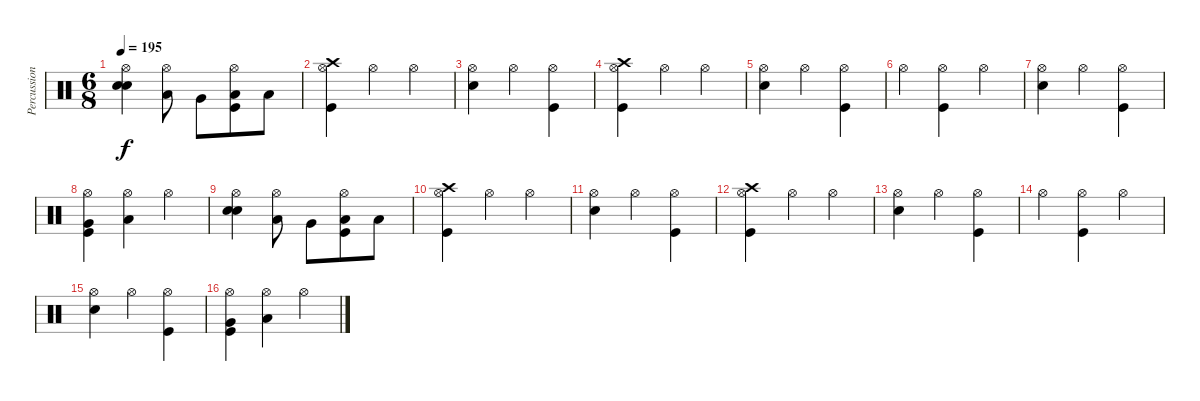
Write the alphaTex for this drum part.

\track ("Percussion" "Percussion") {instrument percussion}
\staff {score}
\articulation defaults
\ts (6 8)
\tempo 195
\clef neutral
\ks c
("Electric Snare (hit)" "Hi-Hat (open)" "Electric Snare (hit)").4{dy f} ("Low Tom (hit)" "Hi-Hat (open)").8 "Very Low Tom (hit)".8 ("Low Floor Tom (hit)" "Hi-Hat (open)" "Kick (hit)").8 "Low Floor Tom (hit)".8 |
("Crash high (hit)" "Hi-Hat (open)" "Kick (hit)").4 "Hi-Hat (open)".4 "Hi-Hat (open)".4 |
("Hi-Hat (open)" "Electric Snare (hit)").4 "Hi-Hat (open)".4 ("Hi-Hat (open)" "Kick (hit)").4 |
("Crash high (hit)" "Hi-Hat (open)" "Kick (hit)").4 "Hi-Hat (open)".4 "Hi-Hat (open)".4 |
("Hi-Hat (open)" "Electric Snare (hit)").4 "Hi-Hat (open)".4 ("Hi-Hat (open)" "Kick (hit)").4 |
"Hi-Hat (open)".4 ("Hi-Hat (open)" "Kick (hit)").4 "Hi-Hat (open)".4 |
("Hi-Hat (open)" "Electric Snare (hit)").4 "Hi-Hat (open)".4 ("Hi-Hat (open)" "Kick (hit)").4 |
("Very Low Tom (hit)" "Hi-Hat (open)" "Kick (hit)").4 ("Low Floor Tom (hit)" "Hi-Hat (open)").4 "Hi-Hat (open)".4 |
("Electric Snare (hit)" "Hi-Hat (open)" "Electric Snare (hit)").4 ("Low Tom (hit)" "Hi-Hat (open)").8 "Very Low Tom (hit)".8 ("Low Floor Tom (hit)" "Hi-Hat (open)" "Kick (hit)").8 "Low Floor Tom (hit)".8 |
("Crash high (hit)" "Hi-Hat (open)" "Kick (hit)").4 "Hi-Hat (open)".4 "Hi-Hat (open)".4 |
("Hi-Hat (open)" "Electric Snare (hit)").4 "Hi-Hat (open)".4 ("Hi-Hat (open)" "Kick (hit)").4 |
("Crash high (hit)" "Hi-Hat (open)" "Kick (hit)").4 "Hi-Hat (open)".4 "Hi-Hat (open)".4 |
("Hi-Hat (open)" "Electric Snare (hit)").4 "Hi-Hat (open)".4 ("Hi-Hat (open)" "Kick (hit)").4 |
"Hi-Hat (open)".4 ("Hi-Hat (open)" "Kick (hit)").4 "Hi-Hat (open)".4 |
("Hi-Hat (open)" "Electric Snare (hit)").4 "Hi-Hat (open)".4 ("Hi-Hat (open)" "Kick (hit)").4 |
("Very Low Tom (hit)" "Hi-Hat (open)" "Kick (hit)").4 ("Low Floor Tom (hit)" "Hi-Hat (open)").4 "Hi-Hat (open)".4
